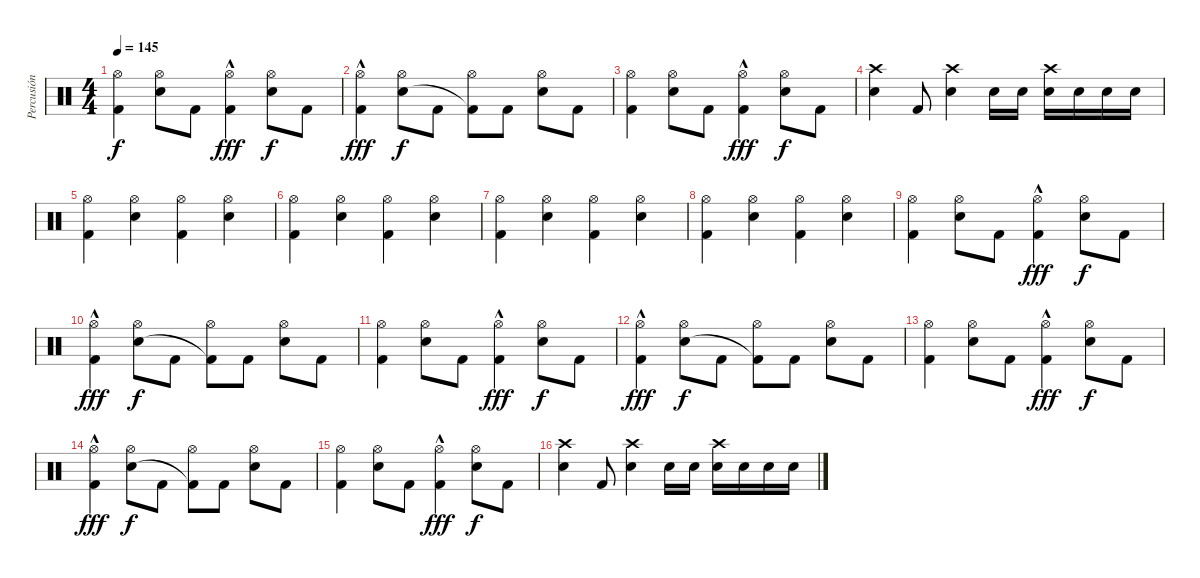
\track ("Percusión" "Percusión") {instrument percussion}
\staff {score}
\articulation defaults
\ts (4 4)
\tempo 145
\clef neutral
\ks c
("Hi-Hat (open)" "Kick (hit) 2").4{dy f} ("Hi-Hat (open)" "Snare (hit) 2").8 "Kick (hit) 2".8 ("Hi-Hat (open)" "Kick (hit) 2"{hac}).4{dy fff} ("Hi-Hat (open)" "Snare (hit) 2").8{dy f} "Kick (hit) 2".8 |
("Hi-Hat (open)" "Kick (hit) 2"{hac}).4{dy fff} ("Hi-Hat (open)" "Snare (hit) 2").8{dy f} "Kick (hit) 2".8 ("Hi-Hat (open)" "Kick (hit) 2"{t}).8 "Kick (hit) 2".8 ("Hi-Hat (open)" "Snare (hit) 2").8 "Kick (hit) 2".8 |
("Hi-Hat (open)" "Kick (hit) 2").4 ("Hi-Hat (open)" "Snare (hit) 2").8 "Kick (hit) 2".8 ("Hi-Hat (open)" "Kick (hit) 2"{hac}).4{dy fff} ("Hi-Hat (open)" "Snare (hit) 2").8{dy f} "Kick (hit) 2".8 |
("Crash high (hit)" "Snare (hit) 2").4 "Kick (hit) 2".8 ("Crash high (hit)" "Snare (hit) 2").4 "Snare (hit) 2".16 "Snare (hit) 2".16 ("Crash high (hit)" "Snare (hit) 2").16 "Snare (hit) 2".16 "Snare (hit) 2".16 "Snare (hit) 2".16 |
("Hi-Hat (open)" "Kick (hit) 2").4 ("Hi-Hat (open)" "Snare (hit) 2").4 ("Hi-Hat (open)" "Kick (hit) 2").4 ("Hi-Hat (open)" "Snare (hit) 2").4 |
("Hi-Hat (open)" "Kick (hit) 2").4 ("Hi-Hat (open)" "Snare (hit) 2").4 ("Hi-Hat (open)" "Kick (hit) 2").4 ("Hi-Hat (open)" "Snare (hit) 2").4 |
("Hi-Hat (open)" "Kick (hit) 2").4 ("Hi-Hat (open)" "Snare (hit) 2").4 ("Hi-Hat (open)" "Kick (hit) 2").4 ("Hi-Hat (open)" "Snare (hit) 2").4 |
("Hi-Hat (open)" "Kick (hit) 2").4 ("Hi-Hat (open)" "Snare (hit) 2").4 ("Hi-Hat (open)" "Kick (hit) 2").4 ("Hi-Hat (open)" "Snare (hit) 2").4 |
("Hi-Hat (open)" "Kick (hit) 2").4 ("Hi-Hat (open)" "Snare (hit) 2").8 "Kick (hit) 2".8 ("Hi-Hat (open)" "Kick (hit) 2"{hac}).4{dy fff} ("Hi-Hat (open)" "Snare (hit) 2").8{dy f} "Kick (hit) 2".8 |
("Hi-Hat (open)" "Kick (hit) 2"{hac}).4{dy fff} ("Hi-Hat (open)" "Snare (hit) 2").8{dy f} "Kick (hit) 2".8 ("Hi-Hat (open)" "Kick (hit) 2"{t}).8 "Kick (hit) 2".8 ("Hi-Hat (open)" "Snare (hit) 2").8 "Kick (hit) 2".8 |
("Hi-Hat (open)" "Kick (hit) 2").4 ("Hi-Hat (open)" "Snare (hit) 2").8 "Kick (hit) 2".8 ("Hi-Hat (open)" "Kick (hit) 2"{hac}).4{dy fff} ("Hi-Hat (open)" "Snare (hit) 2").8{dy f} "Kick (hit) 2".8 |
("Hi-Hat (open)" "Kick (hit) 2"{hac}).4{dy fff} ("Hi-Hat (open)" "Snare (hit) 2").8{dy f} "Kick (hit) 2".8 ("Hi-Hat (open)" "Kick (hit) 2"{t}).8 "Kick (hit) 2".8 ("Hi-Hat (open)" "Snare (hit) 2").8 "Kick (hit) 2".8 |
("Hi-Hat (open)" "Kick (hit) 2").4 ("Hi-Hat (open)" "Snare (hit) 2").8 "Kick (hit) 2".8 ("Hi-Hat (open)" "Kick (hit) 2"{hac}).4{dy fff} ("Hi-Hat (open)" "Snare (hit) 2").8{dy f} "Kick (hit) 2".8 |
("Hi-Hat (open)" "Kick (hit) 2"{hac}).4{dy fff} ("Hi-Hat (open)" "Snare (hit) 2").8{dy f} "Kick (hit) 2".8 ("Hi-Hat (open)" "Kick (hit) 2"{t}).8 "Kick (hit) 2".8 ("Hi-Hat (open)" "Snare (hit) 2").8 "Kick (hit) 2".8 |
("Hi-Hat (open)" "Kick (hit) 2").4 ("Hi-Hat (open)" "Snare (hit) 2").8 "Kick (hit) 2".8 ("Hi-Hat (open)" "Kick (hit) 2"{hac}).4{dy fff} ("Hi-Hat (open)" "Snare (hit) 2").8{dy f} "Kick (hit) 2".8 |
("Crash high (hit)" "Snare (hit) 2").4 "Kick (hit) 2".8 ("Crash high (hit)" "Snare (hit) 2").4 "Snare (hit) 2".16 "Snare (hit) 2".16 ("Crash high (hit)" "Snare (hit) 2").16 "Snare (hit) 2".16 "Snare (hit) 2".16 "Snare (hit) 2".16
